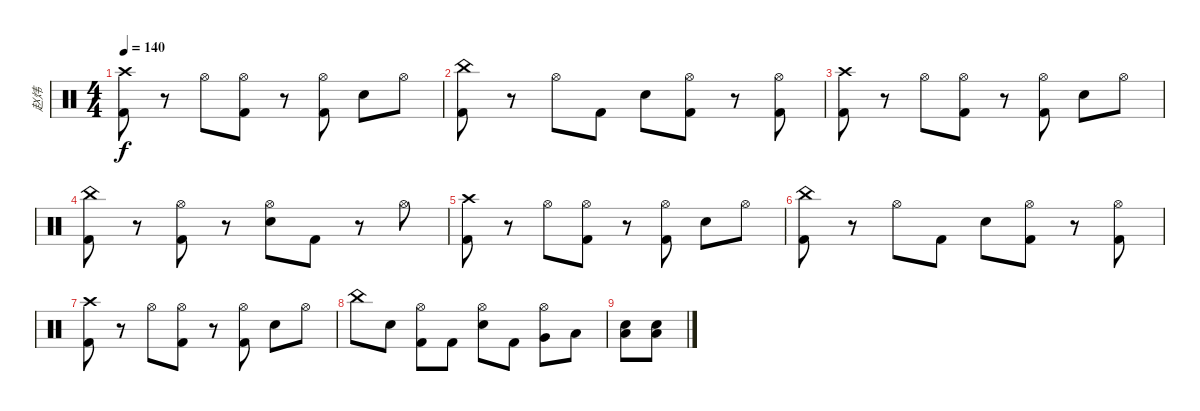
\track ("赵炜" "赵炜") {instrument percussion}
\staff {score}
\articulation defaults
\ts (4 4)
\tempo 140
\clef neutral
\ks c
("Crash high (hit)" "Kick (hit) 2").8{dy f} r.8 "Hi-Hat (open)".8 ("Hi-Hat (open)" "Kick (hit) 2").8 r.8 ("Hi-Hat (open)" "Kick (hit) 2").8 "Snare (hit) 2".8 "Hi-Hat (open)".8 |
("China (hit)" "Kick (hit) 2").8 r.8 "Hi-Hat (open)".8 "Kick (hit) 2".8 "Snare (hit) 2".8 ("Hi-Hat (open)" "Kick (hit) 2").8 r.8 ("Hi-Hat (open)" "Kick (hit) 2").8 |
("Crash high (hit)" "Kick (hit) 2").8 r.8 "Hi-Hat (open)".8 ("Hi-Hat (open)" "Kick (hit) 2").8 r.8 ("Hi-Hat (open)" "Kick (hit) 2").8 "Snare (hit) 2".8 "Hi-Hat (open)".8 |
("China (hit)" "Kick (hit) 2").8 r.8 ("Hi-Hat (open)" "Kick (hit) 2").8 r.8 ("Hi-Hat (open)" "Snare (hit) 2").8 "Kick (hit) 2".8 r.8 "Hi-Hat (open)".8 |
("Crash high (hit)" "Kick (hit) 2").8 r.8 "Hi-Hat (open)".8 ("Hi-Hat (open)" "Kick (hit) 2").8 r.8 ("Hi-Hat (open)" "Kick (hit) 2").8 "Snare (hit) 2".8 "Hi-Hat (open)".8 |
("China (hit)" "Kick (hit) 2").8 r.8 "Hi-Hat (open)".8 "Kick (hit) 2".8 "Snare (hit) 2".8 ("Hi-Hat (open)" "Kick (hit) 2").8 r.8 ("Hi-Hat (open)" "Kick (hit) 2").8 |
("Crash high (hit)" "Kick (hit) 2").8 r.8 "Hi-Hat (open)".8 ("Hi-Hat (open)" "Kick (hit) 2").8 r.8 ("Hi-Hat (open)" "Kick (hit) 2").8 "Snare (hit) 2".8 "Hi-Hat (open)".8 |
"China (hit)".8 "Snare (hit) 2".8 ("Hi-Hat (open)" "Kick (hit) 2").8 "Kick (hit) 2".8 ("Hi-Hat (open)" "Snare (hit) 2").8 "Kick (hit) 2".8 ("Hi-Hat (open)" "Very Low Tom (hit)").8 "Low Floor Tom (hit)".8 |
("Snare (hit) 2" "Low Floor Tom (hit)").8 ("Snare (hit) 2" "Low Floor Tom (hit)").8
